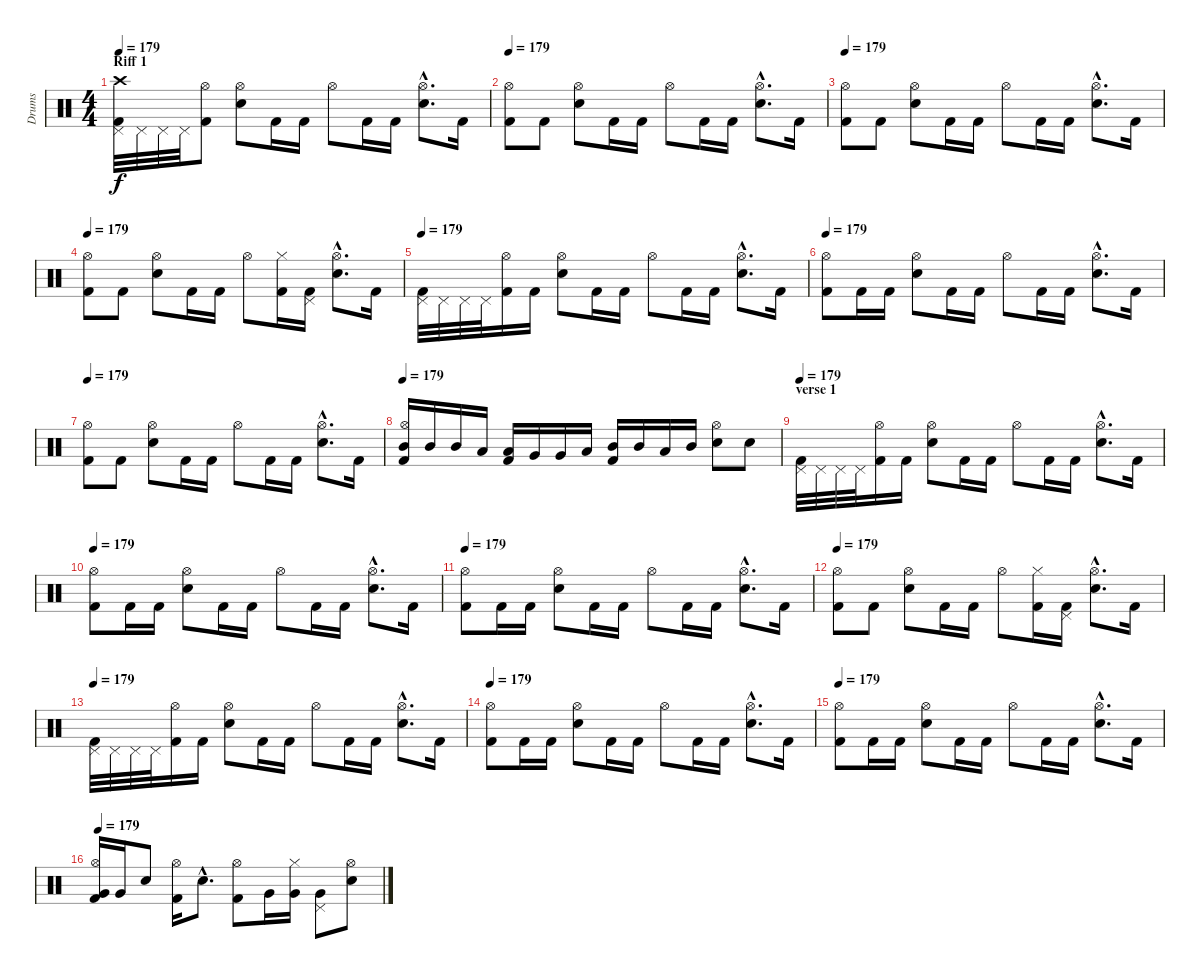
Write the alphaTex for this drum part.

\track ("Drums" "Drums") {instrument percussion}
\staff {score}
\articulation defaults
\ts (4 4)
\section ("" "Riff 1")
\tempo 179
\clef neutral
\ks c
("Pedal Hi-Hat (hit)" "Crash high (hit)" "Kick (hit) 2").32{dy f} "Pedal Hi-Hat (hit)".32 "Pedal Hi-Hat (hit)".32 "Pedal Hi-Hat (hit)".32 ("Hi-Hat (open)" "Kick (hit) 2").8 ("Hi-Hat (open)" "Electric Snare (hit)").8 "Kick (hit) 2".16 "Kick (hit) 2".16 "Hi-Hat (open)".8 "Kick (hit) 2".16 "Kick (hit) 2".16 ("Hi-Hat (open)"{hac} "Electric Snare (hit)"{hac}).8{d} "Kick (hit) 2".16 |
\tempo 179
("Hi-Hat (open)" "Kick (hit) 2").8 "Kick (hit) 2".8 ("Hi-Hat (open)" "Electric Snare (hit)").8 "Kick (hit) 2".16 "Kick (hit) 2".16 "Hi-Hat (open)".8 "Kick (hit) 2".16 "Kick (hit) 2".16 ("Hi-Hat (open)"{hac} "Electric Snare (hit)"{hac}).8{d} "Kick (hit) 2".16 |
\tempo 179
("Hi-Hat (open)" "Kick (hit) 2").8 "Kick (hit) 2".8 ("Hi-Hat (open)" "Electric Snare (hit)").8 "Kick (hit) 2".16 "Kick (hit) 2".16 "Hi-Hat (open)".8 "Kick (hit) 2".16 "Kick (hit) 2".16 ("Hi-Hat (open)"{hac} "Electric Snare (hit)"{hac}).8{d} "Kick (hit) 2".16 |
\tempo 179
("Hi-Hat (open)" "Kick (hit) 2").8 "Kick (hit) 2".8 ("Hi-Hat (open)" "Electric Snare (hit)").8 "Kick (hit) 2".16 "Kick (hit) 2".16 "Hi-Hat (open)".8 ("Hi-Hat (closed)" "Kick (hit) 2").16 ("Pedal Hi-Hat (hit)" "Kick (hit) 2").16 ("Hi-Hat (open)"{hac} "Electric Snare (hit)"{hac}).8{d} "Kick (hit) 2".16 |
\tempo 179
("Pedal Hi-Hat (hit)" "Kick (hit) 2").32 "Pedal Hi-Hat (hit)".32 "Pedal Hi-Hat (hit)".32 "Pedal Hi-Hat (hit)".32 ("Hi-Hat (open)" "Kick (hit) 2").16 "Kick (hit) 2".16 ("Hi-Hat (open)" "Electric Snare (hit)").8 "Kick (hit) 2".16 "Kick (hit) 2".16 "Hi-Hat (open)".8 "Kick (hit) 2".16 "Kick (hit) 2".16 ("Hi-Hat (open)"{hac} "Electric Snare (hit)"{hac}).8{d} "Kick (hit) 2".16 |
\tempo 179
("Hi-Hat (open)" "Kick (hit) 2").8 "Kick (hit) 2".16 "Kick (hit) 2".16 ("Hi-Hat (open)" "Electric Snare (hit)").8 "Kick (hit) 2".16 "Kick (hit) 2".16 "Hi-Hat (open)".8 "Kick (hit) 2".16 "Kick (hit) 2".16 ("Hi-Hat (open)"{hac} "Electric Snare (hit)"{hac}).8{d} "Kick (hit) 2".16 |
\tempo 179
("Hi-Hat (open)" "Kick (hit) 2").8 "Kick (hit) 2".8 ("Hi-Hat (open)" "Electric Snare (hit)").8 "Kick (hit) 2".16 "Kick (hit) 2".16 "Hi-Hat (open)".8 "Kick (hit) 2".16 "Kick (hit) 2".16 ("Hi-Hat (open)"{hac} "Electric Snare (hit)"{hac}).8{d} "Kick (hit) 2".16 |
\tempo 179
("Hi-Hat (open)" "Mid Tom (hit)" "Kick (hit) 2").16 "Mid Tom (hit)".16 "Mid Tom (hit)".16 "Low Tom (hit)".16 ("Low Tom (hit)" "Kick (hit) 2").16 "Very Low Tom (hit)".16 "Very Low Tom (hit)".16 "Low Tom (hit)".16 ("Mid Tom (hit)" "Kick (hit) 2").16 "Mid Tom (hit)".16 "Low Tom (hit)".16 "Mid Tom (hit)".16 ("Hi-Hat (open)" "Electric Snare (hit)").8 "Electric Snare (hit)".8 |
\section ("" "verse 1")
\tempo 179
("Pedal Hi-Hat (hit)" "Kick (hit) 2").32 "Pedal Hi-Hat (hit)".32 "Pedal Hi-Hat (hit)".32 "Pedal Hi-Hat (hit)".32 ("Hi-Hat (open)" "Kick (hit) 2").16 "Kick (hit) 2".16 ("Hi-Hat (open)" "Electric Snare (hit)").8 "Kick (hit) 2".16 "Kick (hit) 2".16 "Hi-Hat (open)".8 "Kick (hit) 2".16 "Kick (hit) 2".16 ("Hi-Hat (open)"{hac} "Electric Snare (hit)"{hac}).8{d} "Kick (hit) 2".16 |
\tempo 179
("Hi-Hat (open)" "Kick (hit) 2").8 "Kick (hit) 2".16 "Kick (hit) 2".16 ("Hi-Hat (open)" "Electric Snare (hit)").8 "Kick (hit) 2".16 "Kick (hit) 2".16 "Hi-Hat (open)".8 "Kick (hit) 2".16 "Kick (hit) 2".16 ("Hi-Hat (open)"{hac} "Electric Snare (hit)"{hac}).8{d} "Kick (hit) 2".16 |
\tempo 179
("Hi-Hat (open)" "Kick (hit) 2").8 "Kick (hit) 2".16 "Kick (hit) 2".16 ("Hi-Hat (open)" "Electric Snare (hit)").8 "Kick (hit) 2".16 "Kick (hit) 2".16 "Hi-Hat (open)".8 "Kick (hit) 2".16 "Kick (hit) 2".16 ("Hi-Hat (open)"{hac} "Electric Snare (hit)"{hac}).8{d} "Kick (hit) 2".16 |
\tempo 179
("Hi-Hat (open)" "Kick (hit) 2").8 "Kick (hit) 2".8 ("Hi-Hat (open)" "Electric Snare (hit)").8 "Kick (hit) 2".16 "Kick (hit) 2".16 "Hi-Hat (open)".8 ("Hi-Hat (closed)" "Kick (hit) 2").16 ("Pedal Hi-Hat (hit)" "Kick (hit) 2").16 ("Hi-Hat (open)"{hac} "Electric Snare (hit)"{hac}).8{d} "Kick (hit) 2".16 |
\tempo 179
("Pedal Hi-Hat (hit)" "Kick (hit) 2").32 "Pedal Hi-Hat (hit)".32 "Pedal Hi-Hat (hit)".32 "Pedal Hi-Hat (hit)".32 ("Hi-Hat (open)" "Kick (hit) 2").16 "Kick (hit) 2".16 ("Hi-Hat (open)" "Electric Snare (hit)").8 "Kick (hit) 2".16 "Kick (hit) 2".16 "Hi-Hat (open)".8 "Kick (hit) 2".16 "Kick (hit) 2".16 ("Hi-Hat (open)"{hac} "Electric Snare (hit)"{hac}).8{d} "Kick (hit) 2".16 |
\tempo 179
("Hi-Hat (open)" "Kick (hit) 2").8 "Kick (hit) 2".16 "Kick (hit) 2".16 ("Hi-Hat (open)" "Electric Snare (hit)").8 "Kick (hit) 2".16 "Kick (hit) 2".16 "Hi-Hat (open)".8 "Kick (hit) 2".16 "Kick (hit) 2".16 ("Hi-Hat (open)"{hac} "Electric Snare (hit)"{hac}).8{d} "Kick (hit) 2".16 |
\tempo 179
("Hi-Hat (open)" "Kick (hit) 2").8 "Kick (hit) 2".16 "Kick (hit) 2".16 ("Hi-Hat (open)" "Electric Snare (hit)").8 "Kick (hit) 2".16 "Kick (hit) 2".16 "Hi-Hat (open)".8 "Kick (hit) 2".16 "Kick (hit) 2".16 ("Hi-Hat (open)"{hac} "Electric Snare (hit)"{hac}).8{d} "Kick (hit) 2".16 |
\tempo 179
("Hi-Hat (open)" "Very Low Tom (hit)" "Kick (hit) 2").16 "Very Low Tom (hit)".16 "Electric Snare (hit)".8 ("Hi-Hat (open)" "Kick (hit) 2").16 "Electric Snare (hit)"{hac}.8{d} ("Hi-Hat (open)" "Kick (hit) 2").8 "Very Low Tom (hit)".16 ("Hi-Hat (closed)" "Very Low Tom (hit)").16 ("Pedal Hi-Hat (hit)" "Very Low Tom (hit)").8 ("Hi-Hat (open)" "Electric Snare (hit)").8
